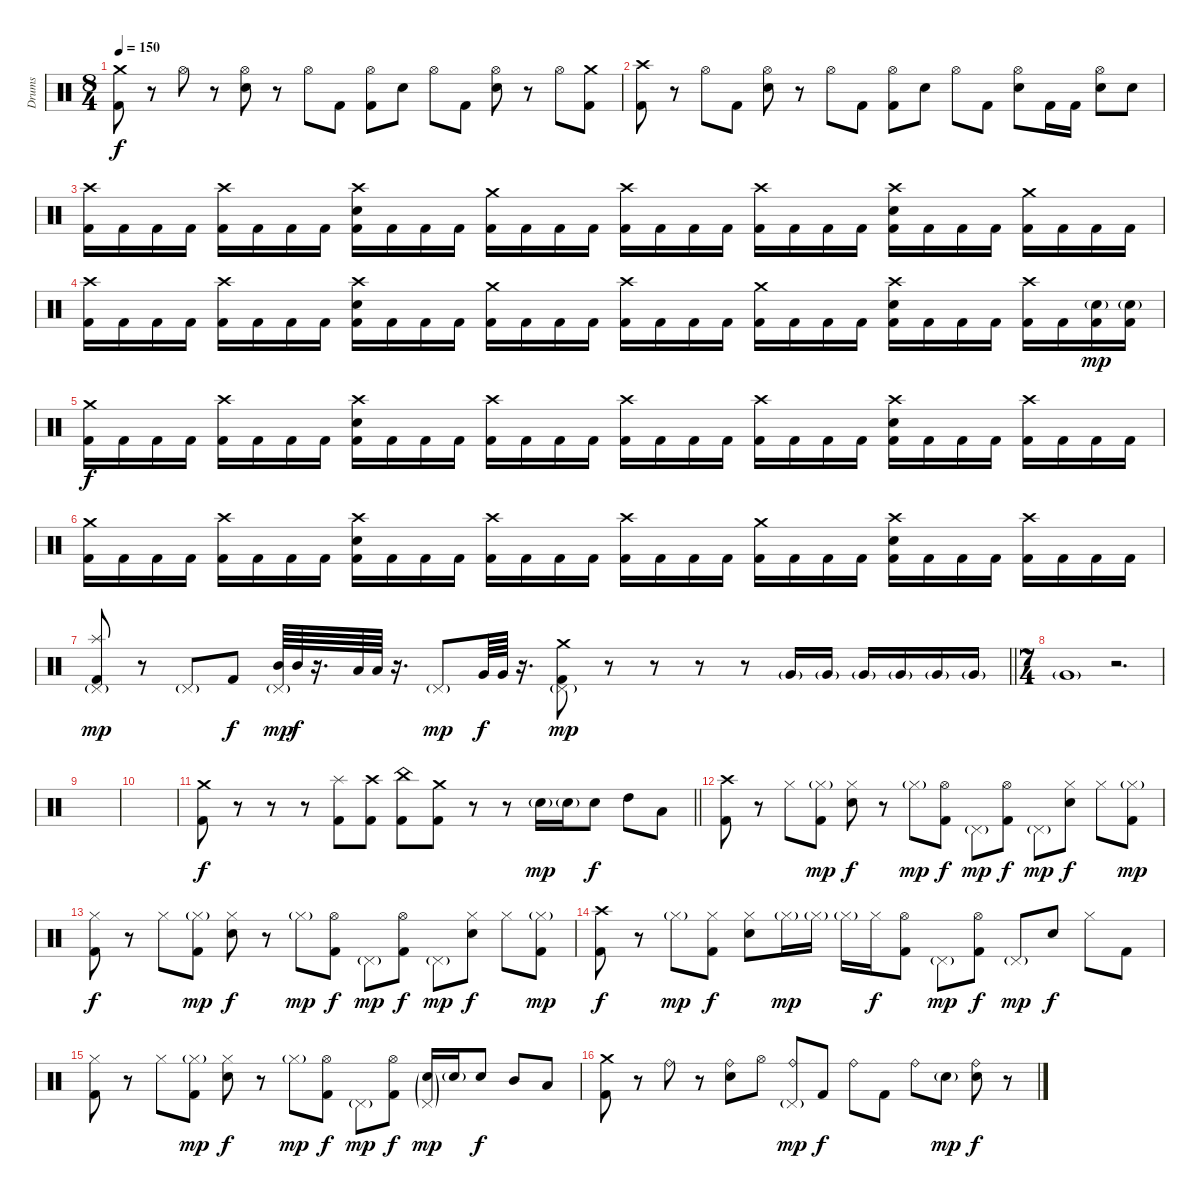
\track ("Drums" "Drums") {instrument percussion}
\staff {score}
\articulation defaults
\ts (8 4)
\section ("" "")
\tempo 150
\clef neutral
\ks c
("Crash medium (hit)" "Kick (hit) 2").8{dy f} r.8 "Hi-Hat (open)".8 r.8 ("Hi-Hat (open)" "Electric Snare (hit)").8 r.8 "Hi-Hat (open)".8 "Kick (hit) 2".8 ("Hi-Hat (open)" "Kick (hit) 2").8 "Electric Snare (hit)".8 "Hi-Hat (open)".8 "Kick (hit) 2".8 ("Hi-Hat (open)" "Electric Snare (hit)").8 r.8 "Hi-Hat (open)".8 ("Crash medium (hit)" "Kick (hit) 2").8 |
("Crash high (hit)" "Kick (hit) 2").8 r.8 "Hi-Hat (open)".8 "Kick (hit) 2".8 ("Hi-Hat (open)" "Electric Snare (hit)").8 r.8 "Hi-Hat (open)".8 "Kick (hit) 2".8 ("Hi-Hat (open)" "Kick (hit) 2").8 "Electric Snare (hit)".8 "Hi-Hat (open)".8 "Kick (hit) 2".8 ("Hi-Hat (open)" "Electric Snare (hit)").8 "Kick (hit) 2".16 "Kick (hit) 2".16 ("Hi-Hat (open)" "Electric Snare (hit)").8 "Electric Snare (hit)".8 |
("Crash high (hit)" "Kick (hit) 2").16 "Kick (hit) 2".16 "Kick (hit) 2".16 "Kick (hit) 2".16 ("Crash high (hit)" "Kick (hit) 2").16 "Kick (hit) 2".16 "Kick (hit) 2".16 "Kick (hit) 2".16 ("Crash high (hit)" "Electric Snare (hit)" "Kick (hit) 2").16 "Kick (hit) 2".16 "Kick (hit) 2".16 "Kick (hit) 2".16 ("Crash medium (hit)" "Kick (hit) 2").16 "Kick (hit) 2".16 "Kick (hit) 2".16 "Kick (hit) 2".16 ("Crash high (hit)" "Kick (hit) 2").16 "Kick (hit) 2".16 "Kick (hit) 2".16 "Kick (hit) 2".16 ("Crash high (hit)" "Kick (hit) 2").16 "Kick (hit) 2".16 "Kick (hit) 2".16 "Kick (hit) 2".16 ("Crash high (hit)" "Electric Snare (hit)" "Kick (hit) 2").16 "Kick (hit) 2".16 "Kick (hit) 2".16 "Kick (hit) 2".16 ("Crash medium (hit)" "Kick (hit) 2").16 "Kick (hit) 2".16 "Kick (hit) 2".16 "Kick (hit) 2".16 |
("Crash high (hit)" "Kick (hit) 2").16 "Kick (hit) 2".16 "Kick (hit) 2".16 "Kick (hit) 2".16 ("Crash high (hit)" "Kick (hit) 2").16 "Kick (hit) 2".16 "Kick (hit) 2".16 "Kick (hit) 2".16 ("Crash high (hit)" "Electric Snare (hit)" "Kick (hit) 2").16 "Kick (hit) 2".16 "Kick (hit) 2".16 "Kick (hit) 2".16 ("Crash medium (hit)" "Kick (hit) 2").16 "Kick (hit) 2".16 "Kick (hit) 2".16 "Kick (hit) 2".16 ("Crash high (hit)" "Kick (hit) 2").16 "Kick (hit) 2".16 "Kick (hit) 2".16 "Kick (hit) 2".16 ("Crash medium (hit)" "Kick (hit) 2").16 "Kick (hit) 2".16 "Kick (hit) 2".16 "Kick (hit) 2".16 ("Crash high (hit)" "Electric Snare (hit)" "Kick (hit) 2").16 "Kick (hit) 2".16 "Kick (hit) 2".16 "Kick (hit) 2".16 ("Crash high (hit)" "Kick (hit) 2").16 "Kick (hit) 2".16 ("Electric Snare (hit)"{g} "Kick (hit) 2").16{dy mp} ("Electric Snare (hit)"{g} "Kick (hit) 2").16 |
("Crash medium (hit)" "Kick (hit) 2").16{dy f} "Kick (hit) 2".16 "Kick (hit) 2".16 "Kick (hit) 2".16 ("Crash high (hit)" "Kick (hit) 2").16 "Kick (hit) 2".16 "Kick (hit) 2".16 "Kick (hit) 2".16 ("Crash high (hit)" "Electric Snare (hit)" "Kick (hit) 2").16 "Kick (hit) 2".16 "Kick (hit) 2".16 "Kick (hit) 2".16 ("Crash high (hit)" "Kick (hit) 2").16 "Kick (hit) 2".16 "Kick (hit) 2".16 "Kick (hit) 2".16 ("Crash high (hit)" "Kick (hit) 2").16 "Kick (hit) 2".16 "Kick (hit) 2".16 "Kick (hit) 2".16 ("Crash high (hit)" "Kick (hit) 2").16 "Kick (hit) 2".16 "Kick (hit) 2".16 "Kick (hit) 2".16 ("Crash high (hit)" "Electric Snare (hit)" "Kick (hit) 2").16 "Kick (hit) 2".16 "Kick (hit) 2".16 "Kick (hit) 2".16 ("Crash high (hit)" "Kick (hit) 2").16 "Kick (hit) 2".16 "Kick (hit) 2".16 "Kick (hit) 2".16 |
("Crash medium (hit)" "Kick (hit) 2").16 "Kick (hit) 2".16 "Kick (hit) 2".16 "Kick (hit) 2".16 ("Crash high (hit)" "Kick (hit) 2").16 "Kick (hit) 2".16 "Kick (hit) 2".16 "Kick (hit) 2".16 ("Crash high (hit)" "Electric Snare (hit)" "Kick (hit) 2").16 "Kick (hit) 2".16 "Kick (hit) 2".16 "Kick (hit) 2".16 ("Crash high (hit)" "Kick (hit) 2").16 "Kick (hit) 2".16 "Kick (hit) 2".16 "Kick (hit) 2".16 ("Crash high (hit)" "Kick (hit) 2").16 "Kick (hit) 2".16 "Kick (hit) 2".16 "Kick (hit) 2".16 ("Crash medium (hit)" "Kick (hit) 2").16 "Kick (hit) 2".16 "Kick (hit) 2".16 "Kick (hit) 2".16 ("Crash high (hit)" "Electric Snare (hit)" "Kick (hit) 2").16 "Kick (hit) 2".16 "Kick (hit) 2".16 "Kick (hit) 2".16 ("Crash high (hit)" "Kick (hit) 2").16 "Kick (hit) 2".16 "Kick (hit) 2".16 "Kick (hit) 2".16 |
\barLineRight lightlight
("Splash (hit)" "Pedal Hi-Hat (hit)"{g} "Kick (hit) 2").8{dy mp} r.8 "Pedal Hi-Hat (hit)"{g}.8 "Kick (hit) 2".8{dy f} ("Mid Tom (hit)" "Pedal Hi-Hat (hit)"{g}).64{dy mp} "Mid Tom (hit)".64{dy f} r.16{d} "Low Tom (hit)".64 "Low Tom (hit)".64 r.16{d} "Pedal Hi-Hat (hit)"{g}.8{dy mp} "Very Low Tom (hit)".64{dy f} "Very Low Tom (hit)".64 r.16{d} ("Crash medium (hit)" "Pedal Hi-Hat (hit)"{g} "Kick (hit) 2").8{dy mp} r.8 r.8 r.8 r.8 "Very Low Tom (hit)"{g}.16 "Very Low Tom (hit)"{g}.16 "Very Low Tom (hit)"{g}.16 "Very Low Tom (hit)"{g}.16 "Very Low Tom (hit)"{g}.16 "Very Low Tom (hit)"{g}.16 |
\ts (7 4)
\section ("" "")
"Very Low Tom (hit)"{g}.1 r.2{d} |
|
|
\barLineRight lightlight
("Crash medium (hit)" "Kick (hit) 2").8{dy f} r.8 r.8 r.8 ("Splash (hit)" "Kick (hit) 2").8 ("Crash high (hit)" "Kick (hit) 2").8 ("China (hit)" "Kick (hit) 2").8 ("Crash medium (hit)" "Kick (hit) 2").8 r.8 r.8 "Electric Snare (hit)"{g}.16{dy mp} "Electric Snare (hit)"{g}.16 "Electric Snare (hit)".8{dy f} "High Tom (hit)".8 "Low Tom (hit)".8 |
\section ("" "")
("Crash high (hit)" "Kick (hit) 2").8 r.8 "Hi-Hat (closed)".8 ("Hi-Hat (closed)"{g} "Kick (hit) 2").8{dy mp} ("Hi-Hat (closed)" "Electric Snare (hit)").8{dy f} r.8 "Hi-Hat (closed)"{g}.8{dy mp} ("Hi-Hat (open)" "Kick (hit) 2").8{dy f} "Pedal Hi-Hat (hit)"{g}.8{dy mp} ("Hi-Hat (open)" "Kick (hit) 2").8{dy f} "Pedal Hi-Hat (hit)"{g}.8{dy mp} ("Hi-Hat (closed)" "Electric Snare (hit)").8{dy f} "Hi-Hat (closed)".8 ("Hi-Hat (closed)"{g} "Kick (hit) 2").8{dy mp} |
("Hi-Hat (closed)" "Kick (hit) 2").8{dy f} r.8 "Hi-Hat (closed)".8 ("Hi-Hat (closed)"{g} "Kick (hit) 2").8{dy mp} ("Hi-Hat (closed)" "Electric Snare (hit)").8{dy f} r.8 "Hi-Hat (closed)"{g}.8{dy mp} ("Hi-Hat (open)" "Kick (hit) 2").8{dy f} "Pedal Hi-Hat (hit)"{g}.8{dy mp} ("Hi-Hat (open)" "Kick (hit) 2").8{dy f} "Pedal Hi-Hat (hit)"{g}.8{dy mp} ("Hi-Hat (closed)" "Electric Snare (hit)").8{dy f} "Hi-Hat (closed)".8 ("Hi-Hat (closed)"{g} "Kick (hit) 2").8{dy mp} |
("Crash high (hit)" "Kick (hit) 2").8{dy f} r.8 "Hi-Hat (closed)"{g}.8{dy mp} ("Hi-Hat (closed)" "Kick (hit) 2").8{dy f} ("Hi-Hat (closed)" "Electric Snare (hit)").8 "Hi-Hat (closed)"{g}.16{dy mp} "Hi-Hat (closed)"{g}.16 "Hi-Hat (closed)"{g}.16 "Hi-Hat (closed)".16{dy f} ("Hi-Hat (open)" "Kick (hit) 2").8 "Pedal Hi-Hat (hit)"{g}.8{dy mp} ("Hi-Hat (open)" "Kick (hit) 2").8{dy f} "Pedal Hi-Hat (hit)"{g}.8{dy mp} "Electric Snare (hit)".8{dy f} "Hi-Hat (closed)".8 "Kick (hit) 2".8 |
("Hi-Hat (closed)" "Kick (hit) 2").8 r.8 "Hi-Hat (closed)".8 ("Hi-Hat (closed)"{g} "Kick (hit) 2").8{dy mp} ("Hi-Hat (closed)" "Electric Snare (hit)").8{dy f} r.8 "Hi-Hat (closed)"{g}.8{dy mp} ("Hi-Hat (open)" "Kick (hit) 2").8{dy f} "Pedal Hi-Hat (hit)"{g}.8{dy mp} ("Hi-Hat (open)" "Kick (hit) 2").8{dy f} ("Pedal Hi-Hat (hit)"{g} "Electric Snare (hit)"{g}).16{dy mp} "Electric Snare (hit)"{g}.16 "Electric Snare (hit)".8{dy f} "Mid Tom (hit)".8 "Low Tom (hit)".8 |
("Crash medium (hit)" "Kick (hit) 2").8 r.8 "Ride (bell)".8 r.8 ("Ride (bell)" "Electric Snare (hit)").8 "Hi-Hat (open)".8 ("Ride (bell)" "Pedal Hi-Hat (hit)"{g}).8{dy mp} "Kick (hit) 2".8{dy f} "Ride (bell)".8 "Kick (hit) 2".8 "Ride (bell)".8 "Electric Snare (hit)"{g}.8{dy mp} ("Ride (bell)" "Electric Snare (hit)").8{dy f} r.8
